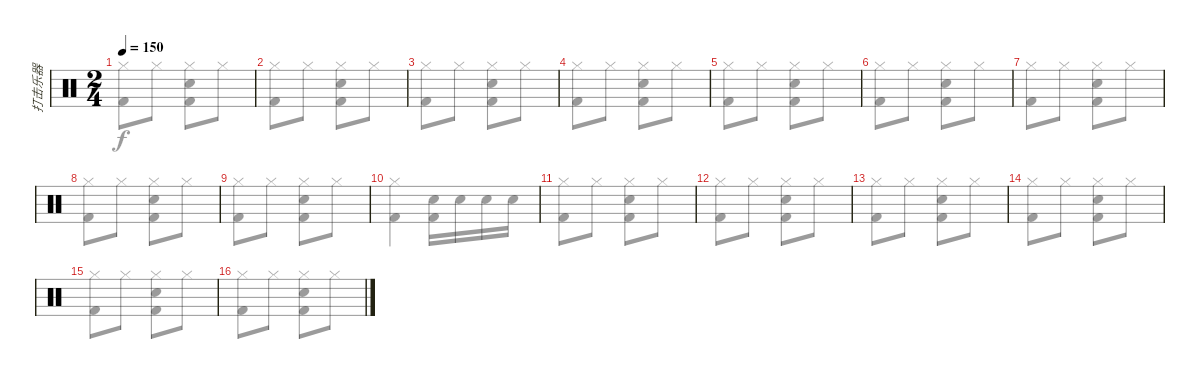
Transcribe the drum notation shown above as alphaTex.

\track ("打击乐器" "打击乐器") {instrument percussion bank 10}
\staff {score}
\articulation defaults
\voice
\ts (2 4)
\tempo 150
\clef neutral
\ks c
|
|
|
|
|
|
|
|
|
|
|
|
|
|
|
\voice
\clef neutral
\ks c
("Hi-Hat (closed)" "Kick (hit) 2").8{dy f} "Hi-Hat (closed)".8 ("Hi-Hat (closed)" "Electric Snare (hit)" "Kick (hit) 2").8 "Hi-Hat (closed)".8 |
("Hi-Hat (closed)" "Kick (hit) 2").8 "Hi-Hat (closed)".8 ("Hi-Hat (closed)" "Electric Snare (hit)" "Kick (hit) 2").8 "Hi-Hat (closed)".8 |
("Hi-Hat (closed)" "Kick (hit) 2").8 "Hi-Hat (closed)".8 ("Hi-Hat (closed)" "Electric Snare (hit)" "Kick (hit) 2").8 "Hi-Hat (closed)".8 |
("Hi-Hat (closed)" "Kick (hit) 2").8 "Hi-Hat (closed)".8 ("Hi-Hat (closed)" "Electric Snare (hit)" "Kick (hit) 2").8 "Hi-Hat (closed)".8 |
("Hi-Hat (closed)" "Kick (hit) 2").8 "Hi-Hat (closed)".8 ("Hi-Hat (closed)" "Electric Snare (hit)" "Kick (hit) 2").8 "Hi-Hat (closed)".8 |
("Hi-Hat (closed)" "Kick (hit) 2").8 "Hi-Hat (closed)".8 ("Hi-Hat (closed)" "Electric Snare (hit)" "Kick (hit) 2").8 "Hi-Hat (closed)".8 |
("Hi-Hat (closed)" "Kick (hit) 2").8 "Hi-Hat (closed)".8 ("Hi-Hat (closed)" "Electric Snare (hit)" "Kick (hit) 2").8 "Hi-Hat (closed)".8 |
("Hi-Hat (closed)" "Kick (hit) 2").8 "Hi-Hat (closed)".8 ("Hi-Hat (closed)" "Electric Snare (hit)" "Kick (hit) 2").8 "Hi-Hat (closed)".8 |
("Hi-Hat (closed)" "Kick (hit) 2").8 "Hi-Hat (closed)".8 ("Hi-Hat (closed)" "Electric Snare (hit)" "Kick (hit) 2").8 "Hi-Hat (closed)".8 |
("Hi-Hat (closed)" "Kick (hit) 2").4 ("Electric Snare (hit)" "Kick (hit) 2").16 "Electric Snare (hit)".16 "Electric Snare (hit)".16 "Electric Snare (hit)".16 |
("Hi-Hat (closed)" "Kick (hit) 2").8 "Hi-Hat (closed)".8 ("Hi-Hat (closed)" "Electric Snare (hit)" "Kick (hit) 2").8 "Hi-Hat (closed)".8 |
("Hi-Hat (closed)" "Kick (hit) 2").8 "Hi-Hat (closed)".8 ("Hi-Hat (closed)" "Electric Snare (hit)" "Kick (hit) 2").8 "Hi-Hat (closed)".8 |
("Hi-Hat (closed)" "Kick (hit) 2").8 "Hi-Hat (closed)".8 ("Hi-Hat (closed)" "Electric Snare (hit)" "Kick (hit) 2").8 "Hi-Hat (closed)".8 |
("Hi-Hat (closed)" "Kick (hit) 2").8 "Hi-Hat (closed)".8 ("Hi-Hat (closed)" "Electric Snare (hit)" "Kick (hit) 2").8 "Hi-Hat (closed)".8 |
("Hi-Hat (closed)" "Kick (hit) 2").8 "Hi-Hat (closed)".8 ("Hi-Hat (closed)" "Electric Snare (hit)" "Kick (hit) 2").8 "Hi-Hat (closed)".8 |
("Hi-Hat (closed)" "Kick (hit) 2").8 "Hi-Hat (closed)".8 ("Hi-Hat (closed)" "Electric Snare (hit)" "Kick (hit) 2").8 "Hi-Hat (closed)".8
